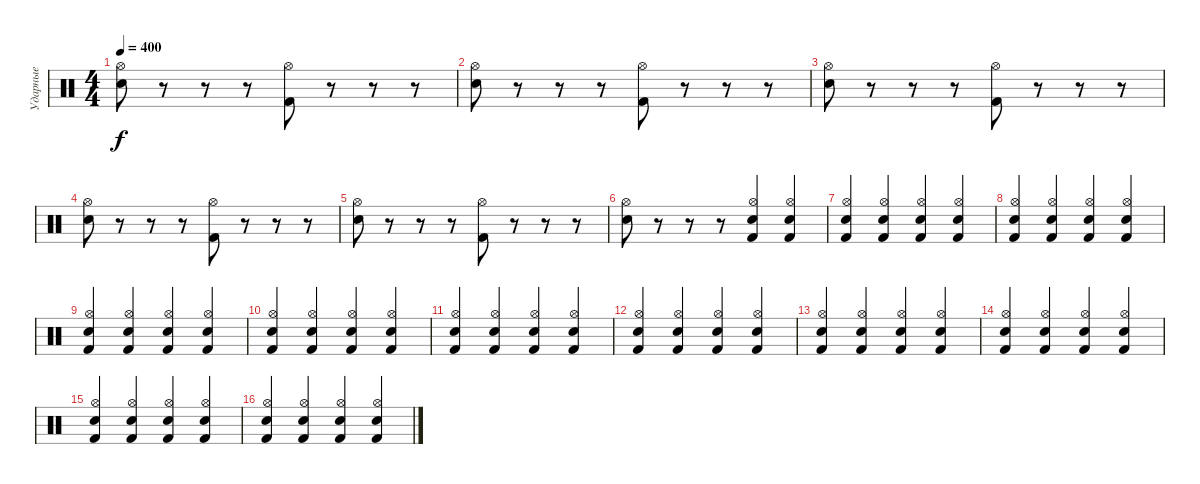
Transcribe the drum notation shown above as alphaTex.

\track ("Ударные" "Ударные") {instrument percussion}
\staff {score}
\articulation defaults
\ts (4 4)
\tempo 400
\clef neutral
\ks c
("Electric Snare (hit)" "Hi-Hat (open)").8{dy f} r.8 r.8 r.8 ("Kick (hit) 2" "Hi-Hat (open)").8 r.8 r.8 r.8 |
("Electric Snare (hit)" "Hi-Hat (open)").8 r.8 r.8 r.8 ("Kick (hit) 2" "Hi-Hat (open)").8 r.8 r.8 r.8 |
("Electric Snare (hit)" "Hi-Hat (open)").8 r.8 r.8 r.8 ("Kick (hit) 2" "Hi-Hat (open)").8 r.8 r.8 r.8 |
("Electric Snare (hit)" "Hi-Hat (open)").8 r.8 r.8 r.8 ("Kick (hit) 2" "Hi-Hat (open)").8 r.8 r.8 r.8 |
("Electric Snare (hit)" "Hi-Hat (open)").8 r.8 r.8 r.8 ("Kick (hit) 2" "Hi-Hat (open)").8 r.8 r.8 r.8 |
("Electric Snare (hit)" "Hi-Hat (open)").8 r.8 r.8 r.8 ("Kick (hit) 2" "Electric Snare (hit)" "Hi-Hat (open)").4 ("Hi-Hat (open)" "Kick (hit) 2" "Electric Snare (hit)").4 |
("Electric Snare (hit)" "Kick (hit) 2" "Hi-Hat (open)").4 ("Hi-Hat (open)" "Kick (hit) 2" "Electric Snare (hit)").4 ("Electric Snare (hit)" "Kick (hit) 2" "Hi-Hat (open)").4 ("Hi-Hat (open)" "Kick (hit) 2" "Electric Snare (hit)").4 |
("Electric Snare (hit)" "Kick (hit) 2" "Hi-Hat (open)").4 ("Hi-Hat (open)" "Kick (hit) 2" "Electric Snare (hit)").4 ("Electric Snare (hit)" "Kick (hit) 2" "Hi-Hat (open)").4 ("Hi-Hat (open)" "Kick (hit) 2" "Electric Snare (hit)").4 |
("Electric Snare (hit)" "Kick (hit) 2" "Hi-Hat (open)").4 ("Hi-Hat (open)" "Kick (hit) 2" "Electric Snare (hit)").4 ("Electric Snare (hit)" "Kick (hit) 2" "Hi-Hat (open)").4 ("Hi-Hat (open)" "Kick (hit) 2" "Electric Snare (hit)").4 |
("Electric Snare (hit)" "Kick (hit) 2" "Hi-Hat (open)").4 ("Hi-Hat (open)" "Kick (hit) 2" "Electric Snare (hit)").4 ("Electric Snare (hit)" "Kick (hit) 2" "Hi-Hat (open)").4 ("Hi-Hat (open)" "Kick (hit) 2" "Electric Snare (hit)").4 |
("Electric Snare (hit)" "Kick (hit) 2" "Hi-Hat (open)").4 ("Hi-Hat (open)" "Kick (hit) 2" "Electric Snare (hit)").4 ("Electric Snare (hit)" "Kick (hit) 2" "Hi-Hat (open)").4 ("Hi-Hat (open)" "Kick (hit) 2" "Electric Snare (hit)").4 |
("Electric Snare (hit)" "Kick (hit) 2" "Hi-Hat (open)").4 ("Hi-Hat (open)" "Kick (hit) 2" "Electric Snare (hit)").4 ("Electric Snare (hit)" "Kick (hit) 2" "Hi-Hat (open)").4 ("Hi-Hat (open)" "Kick (hit) 2" "Electric Snare (hit)").4 |
("Electric Snare (hit)" "Kick (hit) 2" "Hi-Hat (open)").4 ("Hi-Hat (open)" "Kick (hit) 2" "Electric Snare (hit)").4 ("Electric Snare (hit)" "Kick (hit) 2" "Hi-Hat (open)").4 ("Hi-Hat (open)" "Kick (hit) 2" "Electric Snare (hit)").4 |
("Electric Snare (hit)" "Kick (hit) 2" "Hi-Hat (open)").4 ("Hi-Hat (open)" "Kick (hit) 2" "Electric Snare (hit)").4 ("Electric Snare (hit)" "Kick (hit) 2" "Hi-Hat (open)").4 ("Hi-Hat (open)" "Kick (hit) 2" "Electric Snare (hit)").4 |
("Electric Snare (hit)" "Kick (hit) 2" "Hi-Hat (open)").4 ("Hi-Hat (open)" "Kick (hit) 2" "Electric Snare (hit)").4 ("Electric Snare (hit)" "Kick (hit) 2" "Hi-Hat (open)").4 ("Hi-Hat (open)" "Kick (hit) 2" "Electric Snare (hit)").4 |
("Electric Snare (hit)" "Kick (hit) 2" "Hi-Hat (open)").4 ("Hi-Hat (open)" "Kick (hit) 2" "Electric Snare (hit)").4 ("Electric Snare (hit)" "Kick (hit) 2" "Hi-Hat (open)").4 ("Hi-Hat (open)" "Kick (hit) 2" "Electric Snare (hit)").4
